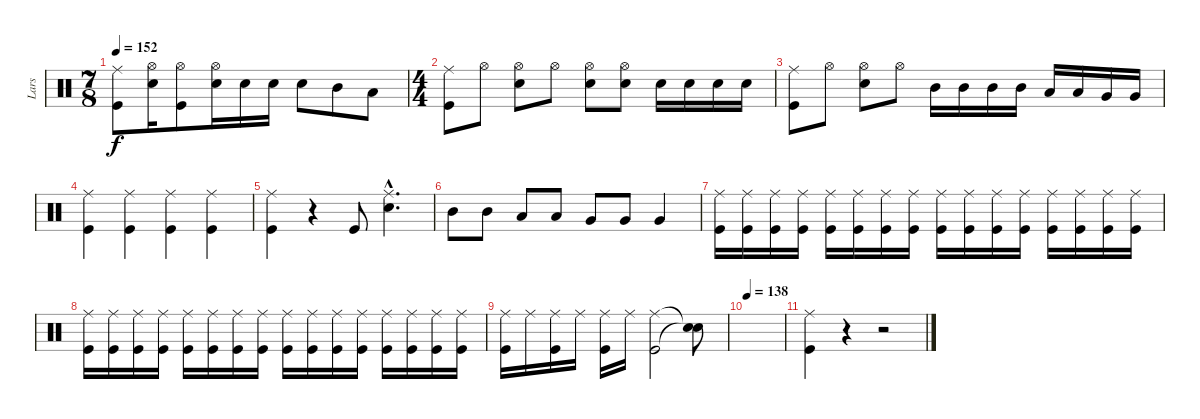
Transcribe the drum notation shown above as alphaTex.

\track ("Lars" "Lars") {instrument percussion}
\staff {score}
\articulation defaults
\ts (7 8)
\tempo 152
\clef neutral
\ks c
("Ride (middle)" "Kick (hit)").8{dy f} ("Hi-Hat (open)" "Snare (hit) 2").16 ("Hi-Hat (open)" "Kick (hit)").8 ("Hi-Hat (open)" "Snare (hit) 2").16 "Snare (hit) 2".16 "Snare (hit) 2".16 "Snare (hit) 2".8 "Mid Tom (hit)".8 "Low Tom (hit)".8 |
\ts (4 4)
("Ride (middle)" "Kick (hit)").8 "Hi-Hat (open)".8 ("Hi-Hat (open)" "Snare (hit) 2").8 "Hi-Hat (open)".8 ("Hi-Hat (open)" "Snare (hit) 2").8 ("Hi-Hat (open)" "Snare (hit) 2").8 "Snare (hit) 2".16 "Snare (hit) 2".16 "Snare (hit) 2".16 "Snare (hit) 2".16 |
("Ride (middle)" "Kick (hit)").8 "Hi-Hat (open)".8 ("Hi-Hat (open)" "Snare (hit) 2").8 "Hi-Hat (open)".8 "Mid Tom (hit)".16 "Mid Tom (hit)".16 "Mid Tom (hit)".16 "Mid Tom (hit)".16 "Low Tom (hit)".16 "Low Tom (hit)".16 "Very Low Tom (hit)".16 "Very Low Tom (hit)".16 |
("Ride (middle)" "Kick (hit)").4 ("Ride (middle)" "Kick (hit)").4 ("Ride (middle)" "Kick (hit)").4 ("Ride (middle)" "Kick (hit)").4 |
("Ride (middle)" "Kick (hit)").4 r.4 "Kick (hit)".8 ("Ride (middle)"{hac} "Snare (hit) 2"{hac}).4{d} |
"Mid Tom (hit)".8 "Mid Tom (hit)".8 "Low Tom (hit)".8 "Low Tom (hit)".8 "Very Low Tom (hit)".8 "Very Low Tom (hit)".8 "Very Low Tom (hit)".4 |
("Ride (middle)" "Kick (hit)").16 ("Ride (middle)" "Kick (hit)").16 ("Ride (middle)" "Kick (hit)").16 ("Ride (middle)" "Kick (hit)").16 ("Ride (middle)" "Kick (hit)").16 ("Ride (middle)" "Kick (hit)").16 ("Ride (middle)" "Kick (hit)").16 ("Ride (middle)" "Kick (hit)").16 ("Ride (middle)" "Kick (hit)").16 ("Ride (middle)" "Kick (hit)").16 ("Ride (middle)" "Kick (hit)").16 ("Ride (middle)" "Kick (hit)").16 ("Ride (middle)" "Kick (hit)").16 ("Ride (middle)" "Kick (hit)").16 ("Ride (middle)" "Kick (hit)").16 ("Ride (middle)" "Kick (hit)").16 |
("Ride (middle)" "Kick (hit)").16 ("Ride (middle)" "Kick (hit)").16 ("Ride (middle)" "Kick (hit)").16 ("Ride (middle)" "Kick (hit)").16 ("Ride (middle)" "Kick (hit)").16 ("Ride (middle)" "Kick (hit)").16 ("Ride (middle)" "Kick (hit)").16 ("Ride (middle)" "Kick (hit)").16 ("Ride (middle)" "Kick (hit)").16 ("Ride (middle)" "Kick (hit)").16 ("Ride (middle)" "Kick (hit)").16 ("Ride (middle)" "Kick (hit)").16 ("Ride (middle)" "Kick (hit)").16 ("Ride (middle)" "Kick (hit)").16 ("Ride (middle)" "Kick (hit)").16 ("Ride (middle)" "Kick (hit)").16 |
("Ride (middle)" "Kick (hit)").16 "Ride (middle)".16 ("Ride (middle)" "Kick (hit)").16 "Ride (middle)".16 ("Ride (middle)" "Kick (hit)").16 "Ride (middle)".16 ("Ride (middle)" "Kick (hit)").2 ("Snare (hit)"{t} "Snare (hit)"{t}).8 |
\tempo 138
|
("Ride (middle)" "Kick (hit)").4 r.4 r.2
